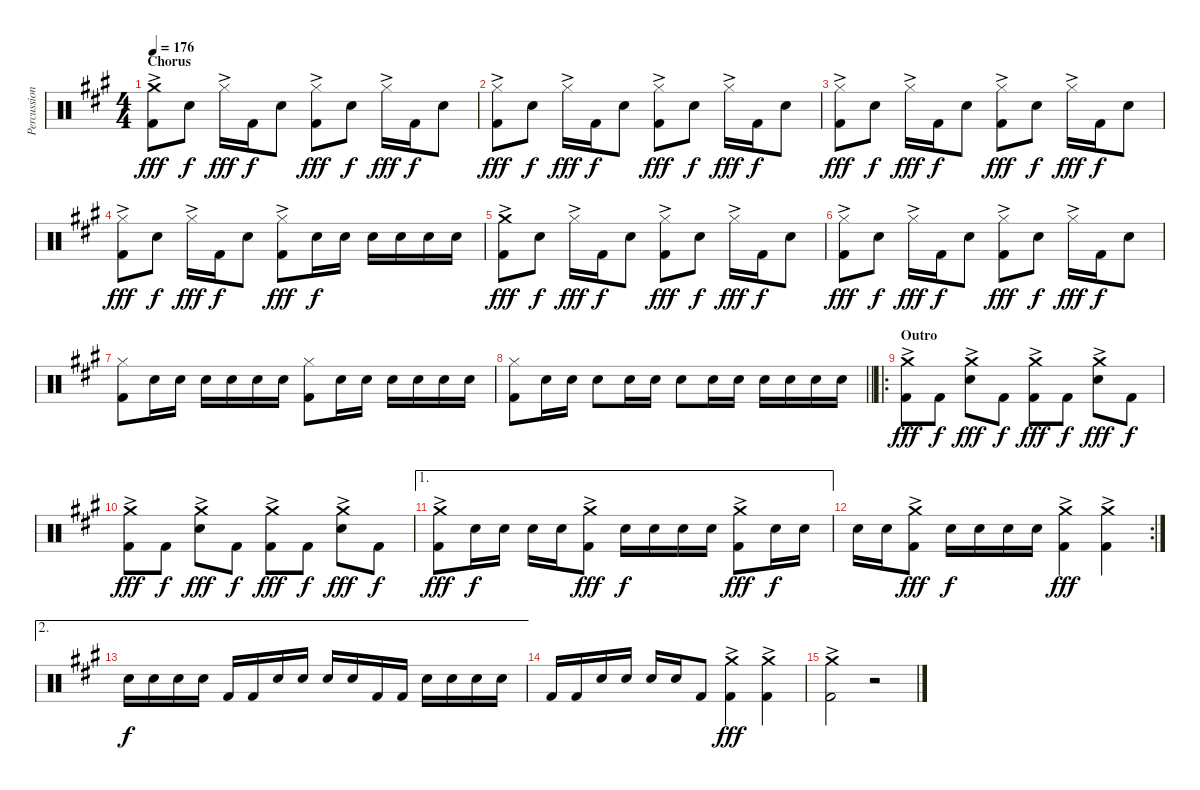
\track ("Percussion" "Percussion") {instrument percussion}
\staff {score}
\articulation defaults
\ts (4 4)
\section ("" "Chorus")
\tempo 176
\clef neutral
\ks a
("Crash medium (hit)"{ac} "Kick (hit) 2").8{dy fff} "Snare (hit) 2".8{dy f} "Hi-Hat (closed)"{ac}.16{dy fff} "Kick (hit) 2".16{dy f} "Snare (hit) 2".8 ("Hi-Hat (closed)"{ac} "Kick (hit) 2").8{dy fff} "Snare (hit) 2".8{dy f} "Hi-Hat (closed)"{ac}.16{dy fff} "Kick (hit) 2".16{dy f} "Snare (hit) 2".8 |
("Hi-Hat (closed)"{ac} "Kick (hit) 2").8{dy fff} "Snare (hit) 2".8{dy f} "Hi-Hat (closed)"{ac}.16{dy fff} "Kick (hit) 2".16{dy f} "Snare (hit) 2".8 ("Hi-Hat (closed)"{ac} "Kick (hit) 2").8{dy fff} "Snare (hit) 2".8{dy f} "Hi-Hat (closed)"{ac}.16{dy fff} "Kick (hit) 2".16{dy f} "Snare (hit) 2".8 |
("Hi-Hat (closed)"{ac} "Kick (hit) 2").8{dy fff} "Snare (hit) 2".8{dy f} "Hi-Hat (closed)"{ac}.16{dy fff} "Kick (hit) 2".16{dy f} "Snare (hit) 2".8 ("Hi-Hat (closed)"{ac} "Kick (hit) 2").8{dy fff} "Snare (hit) 2".8{dy f} "Hi-Hat (closed)"{ac}.16{dy fff} "Kick (hit) 2".16{dy f} "Snare (hit) 2".8 |
("Hi-Hat (closed)"{ac} "Kick (hit) 2").8{dy fff} "Snare (hit) 2".8{dy f} "Hi-Hat (closed)"{ac}.16{dy fff} "Kick (hit) 2".16{dy f} "Snare (hit) 2".8 ("Hi-Hat (closed)"{ac} "Kick (hit) 2").8{dy fff} "Snare (hit) 2".16{dy f} "Snare (hit) 2".16 "Snare (hit) 2".16 "Snare (hit) 2".16 "Snare (hit) 2".16 "Snare (hit) 2".16 |
("Crash medium (hit)"{ac} "Kick (hit) 2").8{dy fff} "Snare (hit) 2".8{dy f} "Hi-Hat (closed)"{ac}.16{dy fff} "Kick (hit) 2".16{dy f} "Snare (hit) 2".8 ("Hi-Hat (closed)"{ac} "Kick (hit) 2").8{dy fff} "Snare (hit) 2".8{dy f} "Hi-Hat (closed)"{ac}.16{dy fff} "Kick (hit) 2".16{dy f} "Snare (hit) 2".8 |
("Hi-Hat (closed)"{ac} "Kick (hit) 2").8{dy fff} "Snare (hit) 2".8{dy f} "Hi-Hat (closed)"{ac}.16{dy fff} "Kick (hit) 2".16{dy f} "Snare (hit) 2".8 ("Hi-Hat (closed)"{ac} "Kick (hit) 2").8{dy fff} "Snare (hit) 2".8{dy f} "Hi-Hat (closed)"{ac}.16{dy fff} "Kick (hit) 2".16{dy f} "Snare (hit) 2".8 |
("Hi-Hat (closed)" "Kick (hit) 2").8 "Snare (hit) 2".16 "Snare (hit) 2".16 "Snare (hit) 2".16 "Snare (hit) 2".16 "Snare (hit) 2".16 "Snare (hit) 2".16 ("Hi-Hat (closed)" "Kick (hit) 2").8 "Snare (hit) 2".16 "Snare (hit) 2".16 "Snare (hit) 2".16 "Snare (hit) 2".16 "Snare (hit) 2".16 "Snare (hit) 2".16 |
\barLineRight lightlight
("Hi-Hat (closed)" "Kick (hit) 2").8 "Snare (hit) 2".16 "Snare (hit) 2".16 "Snare (hit) 2".8 "Snare (hit) 2".16 "Snare (hit) 2".16 "Snare (hit) 2".8 "Snare (hit) 2".16 "Snare (hit) 2".16 "Snare (hit) 2".16 "Snare (hit) 2".16 "Snare (hit) 2".16 "Snare (hit) 2".16 |
\ro
\section ("" "Outro")
("Crash medium (hit)"{ac} "Kick (hit) 2").8{dy fff} "Kick (hit) 2".8{dy f} ("Crash medium (hit)"{ac} "Snare (hit) 2").8{dy fff} "Kick (hit) 2".8{dy f} ("Crash medium (hit)"{ac} "Kick (hit) 2").8{dy fff} "Kick (hit) 2".8{dy f} ("Crash medium (hit)"{ac} "Snare (hit) 2").8{dy fff} "Kick (hit) 2".8{dy f} |
("Crash medium (hit)"{ac} "Kick (hit) 2").8{dy fff} "Kick (hit) 2".8{dy f} ("Crash medium (hit)"{ac} "Snare (hit) 2").8{dy fff} "Kick (hit) 2".8{dy f} ("Crash medium (hit)"{ac} "Kick (hit) 2").8{dy fff} "Kick (hit) 2".8{dy f} ("Crash medium (hit)"{ac} "Snare (hit) 2").8{dy fff} "Kick (hit) 2".8{dy f} |
\ae 1
("Crash medium (hit)"{ac} "Kick (hit) 2"{ac}).8{dy fff} "Snare (hit) 2".16{dy f} "Snare (hit) 2".16 "Snare (hit) 2".16 "Snare (hit) 2".16 ("Crash medium (hit)"{ac} "Kick (hit) 2"{ac}).8{dy fff} "Snare (hit) 2".16{dy f} "Snare (hit) 2".16 "Snare (hit) 2".16 "Snare (hit) 2".16 ("Crash medium (hit)"{ac} "Kick (hit) 2"{ac}).8{dy fff} "Snare (hit) 2".16{dy f} "Snare (hit) 2".16 |
\rc 2 "Snare (hit) 2".16 "Snare (hit) 2".16
("Crash medium (hit)"{ac} "Kick (hit) 2"{ac}).8{dy fff} "Snare (hit) 2".16{dy f} "Snare (hit) 2".16 "Snare (hit) 2".16 "Snare (hit) 2".16 ("Crash medium (hit)"{ac} "Kick (hit) 2"{ac}).4{dy fff} ("Crash medium (hit)"{ac} "Kick (hit) 2"{ac}).4 |
\ae 2 "Snare (hit) 2".16{dy f} "Snare (hit) 2".16 "Snare (hit) 2".16 "Snare (hit) 2".16 "Kick (hit) 2".16 "Kick (hit) 2".16 "Snare (hit) 2".16 "Snare (hit) 2".16 "Snare (hit) 2".16 "Snare (hit) 2".16 "Kick (hit) 2".16 "Kick (hit) 2".16 "Snare (hit) 2".16 "Snare (hit) 2".16 "Snare (hit) 2".16 "Snare (hit) 2".16
|
"Kick (hit) 2".16 "Kick (hit) 2".16 "Snare (hit) 2".16 "Snare (hit) 2".16 "Snare (hit) 2".16 "Snare (hit) 2".16 "Kick (hit) 2".8 ("Crash medium (hit)"{ac} "Kick (hit) 2"{ac}).4{dy fff} ("Crash medium (hit)"{ac} "Kick (hit) 2"{ac}).4 |
("Crash medium (hit)"{ac} "Kick (hit) 2"{ac}).2 r.2
